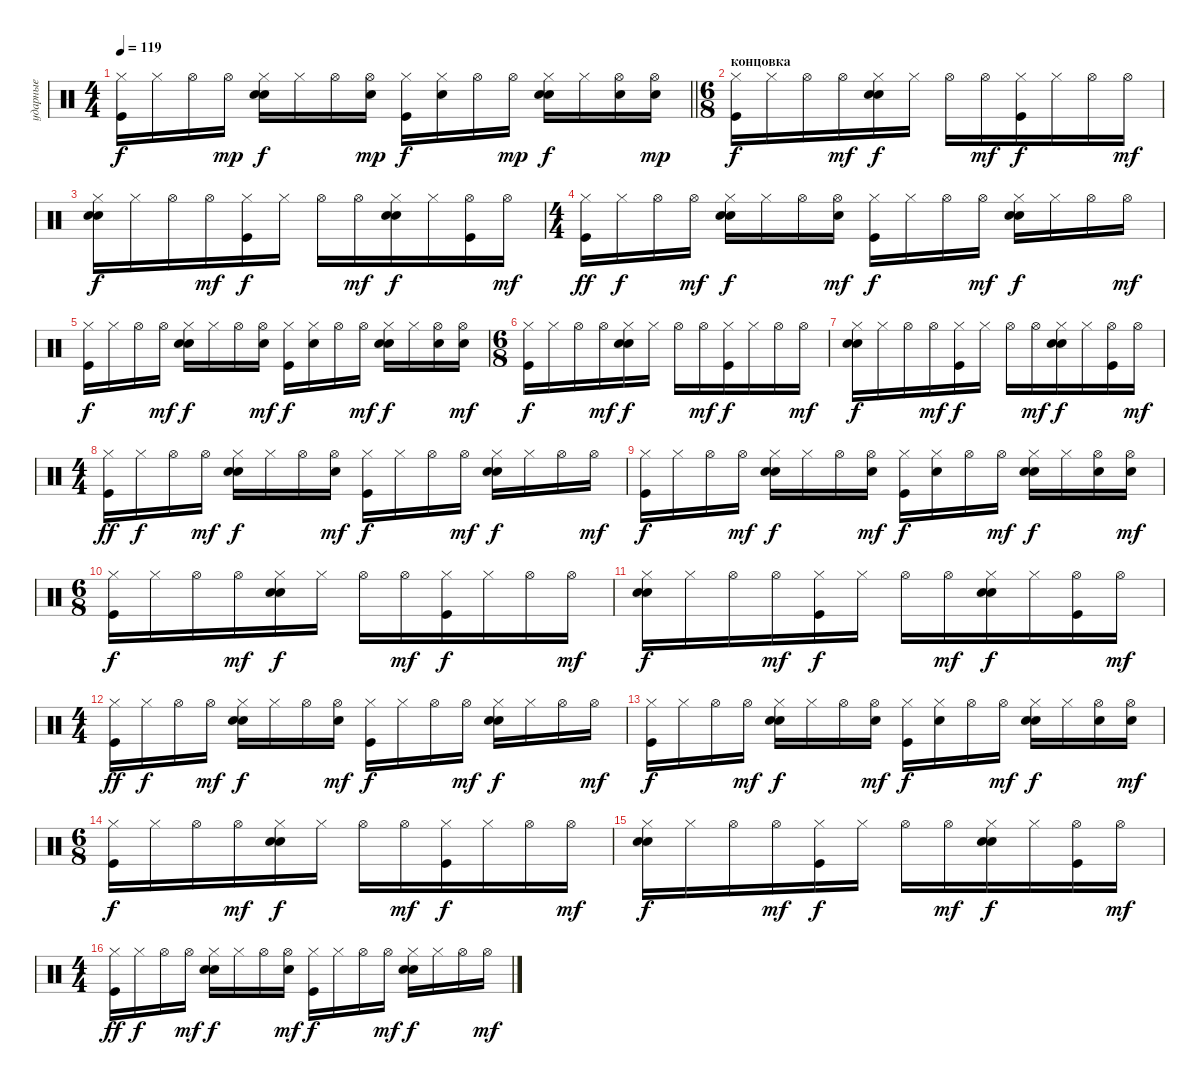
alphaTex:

\track ("ударные" "ударные") {instrument percussion}
\staff {score}
\articulation defaults
\ts (4 4)
\tempo 119
\clef neutral
\barLineRight lightlight
\ks c
("Hi-Hat (closed)" "Kick (hit)").16{dy f} "Hi-Hat (closed)".16 "Hi-Hat (open)".16 "Hi-Hat (open)".16{dy mp} ("Hi-Hat (closed)" "Electric Snare (hit)" "Hand Clap (hit)").16{dy f} "Hi-Hat (closed)".16 "Hi-Hat (open)".16 ("Electric Snare (hit)" "Hi-Hat (open)").16{dy mp} ("Kick (hit)" "Hi-Hat (closed)").16{dy f} ("Electric Snare (hit)" "Hi-Hat (closed)").16 "Hi-Hat (open)".16 "Hi-Hat (open)".16{dy mp} ("Hi-Hat (closed)" "Electric Snare (hit)" "Hand Clap (hit)").16{dy f} "Hi-Hat (closed)".16 ("Electric Snare (hit)" "Hi-Hat (open)").16 ("Electric Snare (hit)" "Hi-Hat (open)").16{dy mp} |
\ts (6 8)
\section ("" "концовка")
("Hi-Hat (closed)" "Kick (hit)").16{dy f} "Hi-Hat (closed)".16 "Hi-Hat (open)".16 "Hi-Hat (open)".16{dy mf} ("Electric Snare (hit)" "Hi-Hat (closed)" "Hand Clap (hit)").16{dy f} "Hi-Hat (closed)".16 "Hi-Hat (open)".16 "Hi-Hat (open)".16{dy mf} ("Kick (hit)" "Hi-Hat (closed)").16{dy f} "Hi-Hat (closed)".16 "Hi-Hat (open)".16 "Hi-Hat (open)".16{dy mf} |
("Electric Snare (hit)" "Hi-Hat (closed)" "Hand Clap (hit)").16{dy f} "Hi-Hat (closed)".16 "Hi-Hat (open)".16 "Hi-Hat (open)".16{dy mf} ("Kick (hit)" "Hi-Hat (closed)").16{dy f} "Hi-Hat (closed)".16 "Hi-Hat (open)".16 "Hi-Hat (open)".16{dy mf} ("Electric Snare (hit)" "Hi-Hat (closed)" "Hand Clap (hit)").16{dy f} "Hi-Hat (closed)".16 ("Kick (hit)" "Hi-Hat (open)").16 "Hi-Hat (open)".16{dy mf} |
\ts (4 4)
("Kick (hit)" "Hi-Hat (closed)").16{dy ff} "Hi-Hat (closed)".16{dy f} "Hi-Hat (open)".16 "Hi-Hat (open)".16{dy mf} ("Electric Snare (hit)" "Hi-Hat (closed)" "Hand Clap (hit)").16{dy f} "Hi-Hat (closed)".16 "Hi-Hat (open)".16 ("Hi-Hat (open)" "Electric Snare (hit)").16{dy mf} ("Hi-Hat (closed)" "Kick (hit)").16{dy f} "Hi-Hat (closed)".16 "Hi-Hat (open)".16 "Hi-Hat (open)".16{dy mf} ("Electric Snare (hit)" "Hi-Hat (closed)" "Hand Clap (hit)").16{dy f} "Hi-Hat (closed)".16 "Hi-Hat (open)".16 "Hi-Hat (open)".16{dy mf} |
("Kick (hit)" "Hi-Hat (closed)").16{dy f} "Hi-Hat (closed)".16 "Hi-Hat (open)".16 "Hi-Hat (open)".16{dy mf} ("Electric Snare (hit)" "Hi-Hat (closed)" "Hand Clap (hit)").16{dy f} "Hi-Hat (closed)".16 "Hi-Hat (open)".16 ("Hi-Hat (open)" "Electric Snare (hit)").16{dy mf} ("Hi-Hat (closed)" "Kick (hit)").16{dy f} ("Electric Snare (hit)" "Hi-Hat (closed)").16 "Hi-Hat (open)".16 "Hi-Hat (open)".16{dy mf} ("Electric Snare (hit)" "Hi-Hat (closed)" "Hand Clap (hit)").16{dy f} "Hi-Hat (closed)".16 ("Electric Snare (hit)" "Hi-Hat (open)").16 ("Electric Snare (hit)" "Hi-Hat (open)").16{dy mf} |
\ts (6 8)
("Hi-Hat (closed)" "Kick (hit)").16{dy f} "Hi-Hat (closed)".16 "Hi-Hat (open)".16 "Hi-Hat (open)".16{dy mf} ("Electric Snare (hit)" "Hi-Hat (closed)" "Hand Clap (hit)").16{dy f} "Hi-Hat (closed)".16 "Hi-Hat (open)".16 "Hi-Hat (open)".16{dy mf} ("Kick (hit)" "Hi-Hat (closed)").16{dy f} "Hi-Hat (closed)".16 "Hi-Hat (open)".16 "Hi-Hat (open)".16{dy mf} |
("Electric Snare (hit)" "Hi-Hat (closed)" "Hand Clap (hit)").16{dy f} "Hi-Hat (closed)".16 "Hi-Hat (open)".16 "Hi-Hat (open)".16{dy mf} ("Kick (hit)" "Hi-Hat (closed)").16{dy f} "Hi-Hat (closed)".16 "Hi-Hat (open)".16 "Hi-Hat (open)".16{dy mf} ("Electric Snare (hit)" "Hi-Hat (closed)" "Hand Clap (hit)").16{dy f} "Hi-Hat (closed)".16 ("Kick (hit)" "Hi-Hat (open)").16 "Hi-Hat (open)".16{dy mf} |
\ts (4 4)
("Kick (hit)" "Hi-Hat (closed)").16{dy ff} "Hi-Hat (closed)".16{dy f} "Hi-Hat (open)".16 "Hi-Hat (open)".16{dy mf} ("Electric Snare (hit)" "Hi-Hat (closed)" "Hand Clap (hit)").16{dy f} "Hi-Hat (closed)".16 "Hi-Hat (open)".16 ("Hi-Hat (open)" "Electric Snare (hit)").16{dy mf} ("Hi-Hat (closed)" "Kick (hit)").16{dy f} "Hi-Hat (closed)".16 "Hi-Hat (open)".16 "Hi-Hat (open)".16{dy mf} ("Electric Snare (hit)" "Hi-Hat (closed)" "Hand Clap (hit)").16{dy f} "Hi-Hat (closed)".16 "Hi-Hat (open)".16 "Hi-Hat (open)".16{dy mf} |
("Kick (hit)" "Hi-Hat (closed)").16{dy f} "Hi-Hat (closed)".16 "Hi-Hat (open)".16 "Hi-Hat (open)".16{dy mf} ("Electric Snare (hit)" "Hi-Hat (closed)" "Hand Clap (hit)").16{dy f} "Hi-Hat (closed)".16 "Hi-Hat (open)".16 ("Hi-Hat (open)" "Electric Snare (hit)").16{dy mf} ("Hi-Hat (closed)" "Kick (hit)").16{dy f} ("Electric Snare (hit)" "Hi-Hat (closed)").16 "Hi-Hat (open)".16 "Hi-Hat (open)".16{dy mf} ("Electric Snare (hit)" "Hi-Hat (closed)" "Hand Clap (hit)").16{dy f} "Hi-Hat (closed)".16 ("Electric Snare (hit)" "Hi-Hat (open)").16 ("Electric Snare (hit)" "Hi-Hat (open)").16{dy mf} |
\ts (6 8)
("Hi-Hat (closed)" "Kick (hit)").16{dy f} "Hi-Hat (closed)".16 "Hi-Hat (open)".16 "Hi-Hat (open)".16{dy mf} ("Electric Snare (hit)" "Hi-Hat (closed)" "Hand Clap (hit)").16{dy f} "Hi-Hat (closed)".16 "Hi-Hat (open)".16 "Hi-Hat (open)".16{dy mf} ("Kick (hit)" "Hi-Hat (closed)").16{dy f} "Hi-Hat (closed)".16 "Hi-Hat (open)".16 "Hi-Hat (open)".16{dy mf} |
("Electric Snare (hit)" "Hi-Hat (closed)" "Hand Clap (hit)").16{dy f} "Hi-Hat (closed)".16 "Hi-Hat (open)".16 "Hi-Hat (open)".16{dy mf} ("Kick (hit)" "Hi-Hat (closed)").16{dy f} "Hi-Hat (closed)".16 "Hi-Hat (open)".16 "Hi-Hat (open)".16{dy mf} ("Electric Snare (hit)" "Hi-Hat (closed)" "Hand Clap (hit)").16{dy f} "Hi-Hat (closed)".16 ("Kick (hit)" "Hi-Hat (open)").16 "Hi-Hat (open)".16{dy mf} |
\ts (4 4)
("Kick (hit)" "Hi-Hat (closed)").16{dy ff} "Hi-Hat (closed)".16{dy f} "Hi-Hat (open)".16 "Hi-Hat (open)".16{dy mf} ("Electric Snare (hit)" "Hi-Hat (closed)" "Hand Clap (hit)").16{dy f} "Hi-Hat (closed)".16 "Hi-Hat (open)".16 ("Hi-Hat (open)" "Electric Snare (hit)").16{dy mf} ("Hi-Hat (closed)" "Kick (hit)").16{dy f} "Hi-Hat (closed)".16 "Hi-Hat (open)".16 "Hi-Hat (open)".16{dy mf} ("Electric Snare (hit)" "Hi-Hat (closed)" "Hand Clap (hit)").16{dy f} "Hi-Hat (closed)".16 "Hi-Hat (open)".16 "Hi-Hat (open)".16{dy mf} |
("Kick (hit)" "Hi-Hat (closed)").16{dy f} "Hi-Hat (closed)".16 "Hi-Hat (open)".16 "Hi-Hat (open)".16{dy mf} ("Electric Snare (hit)" "Hi-Hat (closed)" "Hand Clap (hit)").16{dy f} "Hi-Hat (closed)".16 "Hi-Hat (open)".16 ("Hi-Hat (open)" "Electric Snare (hit)").16{dy mf} ("Hi-Hat (closed)" "Kick (hit)").16{dy f} ("Electric Snare (hit)" "Hi-Hat (closed)").16 "Hi-Hat (open)".16 "Hi-Hat (open)".16{dy mf} ("Electric Snare (hit)" "Hi-Hat (closed)" "Hand Clap (hit)").16{dy f} "Hi-Hat (closed)".16 ("Electric Snare (hit)" "Hi-Hat (open)").16 ("Electric Snare (hit)" "Hi-Hat (open)").16{dy mf} |
\ts (6 8)
("Hi-Hat (closed)" "Kick (hit)").16{dy f} "Hi-Hat (closed)".16 "Hi-Hat (open)".16 "Hi-Hat (open)".16{dy mf} ("Electric Snare (hit)" "Hi-Hat (closed)" "Hand Clap (hit)").16{dy f} "Hi-Hat (closed)".16 "Hi-Hat (open)".16 "Hi-Hat (open)".16{dy mf} ("Kick (hit)" "Hi-Hat (closed)").16{dy f} "Hi-Hat (closed)".16 "Hi-Hat (open)".16 "Hi-Hat (open)".16{dy mf} |
("Electric Snare (hit)" "Hi-Hat (closed)" "Hand Clap (hit)").16{dy f} "Hi-Hat (closed)".16 "Hi-Hat (open)".16 "Hi-Hat (open)".16{dy mf} ("Kick (hit)" "Hi-Hat (closed)").16{dy f} "Hi-Hat (closed)".16 "Hi-Hat (open)".16 "Hi-Hat (open)".16{dy mf} ("Electric Snare (hit)" "Hi-Hat (closed)" "Hand Clap (hit)").16{dy f} "Hi-Hat (closed)".16 ("Kick (hit)" "Hi-Hat (open)").16 "Hi-Hat (open)".16{dy mf} |
\ts (4 4)
("Kick (hit)" "Hi-Hat (closed)").16{dy ff} "Hi-Hat (closed)".16{dy f} "Hi-Hat (open)".16 "Hi-Hat (open)".16{dy mf} ("Electric Snare (hit)" "Hi-Hat (closed)" "Hand Clap (hit)").16{dy f} "Hi-Hat (closed)".16 "Hi-Hat (open)".16 ("Hi-Hat (open)" "Electric Snare (hit)").16{dy mf} ("Hi-Hat (closed)" "Kick (hit)").16{dy f} "Hi-Hat (closed)".16 "Hi-Hat (open)".16 "Hi-Hat (open)".16{dy mf} ("Electric Snare (hit)" "Hi-Hat (closed)" "Hand Clap (hit)").16{dy f} "Hi-Hat (closed)".16 "Hi-Hat (open)".16 "Hi-Hat (open)".16{dy mf}
